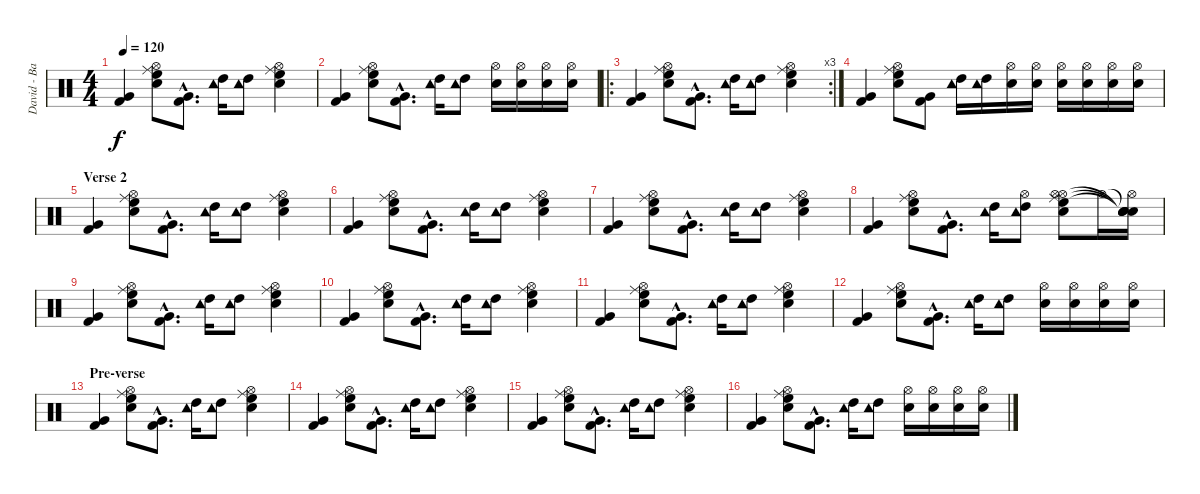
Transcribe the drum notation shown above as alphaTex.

\track ("David - Batterie" "David - Ba") {instrument percussion}
\staff {score}
\articulation defaults
\ts (4 4)
\tempo 120
\clef neutral
\ks c
("Kick (hit) 2" "Very Low Tom (hit)").4{dy f} ("Snare (hit) 2" "Hi-Hat (open)" "High Floor Tom (hit)" "Ride (middle)").8 ("Kick (hit) 2"{hac} "Very Low Tom (hit)"{hac}).8{d} ("High Tom (hit)" "Tambourine (hit)").16 ("High Tom (hit)" "Tambourine (hit)").8 ("Snare (hit) 2" "Hi-Hat (open)" "High Floor Tom (hit)" "Ride (middle)").4 |
("Kick (hit) 2" "Very Low Tom (hit)").4 ("Snare (hit) 2" "Hi-Hat (open)" "High Floor Tom (hit)" "Ride (middle)").8 ("Kick (hit) 2"{hac} "Very Low Tom (hit)"{hac}).8{d} ("High Tom (hit)" "Tambourine (hit)").16 ("High Tom (hit)" "Tambourine (hit)").8 ("Snare (hit) 2" "Hi-Hat (open)").16 ("Snare (hit) 2" "Hi-Hat (open)").16 ("Snare (hit) 2" "Hi-Hat (open)").16 ("Snare (hit) 2" "Hi-Hat (open)").16 |
\ro
\rc 3
("Kick (hit) 2" "Very Low Tom (hit)").4 ("Snare (hit) 2" "Hi-Hat (open)" "High Floor Tom (hit)" "Ride (middle)").8 ("Kick (hit) 2"{hac} "Very Low Tom (hit)"{hac}).8{d} ("High Tom (hit)" "Tambourine (hit)").16 ("High Tom (hit)" "Tambourine (hit)").8 ("Snare (hit) 2" "Hi-Hat (open)" "High Floor Tom (hit)" "Ride (middle)").4 |
("Kick (hit) 2" "Very Low Tom (hit)").4 ("Snare (hit) 2" "Hi-Hat (open)" "High Floor Tom (hit)" "Ride (middle)").8 ("Kick (hit) 2" "Very Low Tom (hit)").8 ("High Tom (hit)" "Tambourine (hit)").16 ("High Tom (hit)" "Tambourine (hit)").16 ("Snare (hit) 2" "Hi-Hat (open)").16 ("Snare (hit) 2" "Hi-Hat (open)").16 ("Snare (hit) 2" "Hi-Hat (open)").16 ("Snare (hit) 2" "Hi-Hat (open)").16 ("Snare (hit) 2" "Hi-Hat (open)").16 ("Snare (hit) 2" "Hi-Hat (open)").16 |
\section ("" "Verse 2")
("Kick (hit) 2" "Very Low Tom (hit)").4 ("Snare (hit) 2" "Hi-Hat (open)" "High Floor Tom (hit)" "Ride (middle)").8 ("Kick (hit) 2"{hac} "Very Low Tom (hit)"{hac}).8{d} ("High Tom (hit)" "Tambourine (hit)").16 ("High Tom (hit)" "Tambourine (hit)").8 ("Snare (hit) 2" "Hi-Hat (open)" "High Floor Tom (hit)" "Ride (middle)").4 |
("Kick (hit) 2" "Very Low Tom (hit)").4 ("Snare (hit) 2" "Hi-Hat (open)" "High Floor Tom (hit)" "Ride (middle)").8 ("Kick (hit) 2"{hac} "Very Low Tom (hit)"{hac}).8{d} ("High Tom (hit)" "Tambourine (hit)").16 ("High Tom (hit)" "Tambourine (hit)").8 ("Snare (hit) 2" "Hi-Hat (open)" "High Floor Tom (hit)" "Ride (middle)").4 |
("Kick (hit) 2" "Very Low Tom (hit)").4 ("Snare (hit) 2" "Hi-Hat (open)" "High Floor Tom (hit)" "Ride (middle)").8 ("Kick (hit) 2"{hac} "Very Low Tom (hit)"{hac}).8{d} ("High Tom (hit)" "Tambourine (hit)").16 ("High Tom (hit)" "Tambourine (hit)").8 ("Snare (hit) 2" "Hi-Hat (open)" "High Floor Tom (hit)" "Ride (middle)").4 |
("Kick (hit) 2" "Very Low Tom (hit)").4 ("Snare (hit) 2" "Hi-Hat (open)" "High Floor Tom (hit)" "Ride (middle)").8 ("Kick (hit) 2"{hac} "Very Low Tom (hit)"{hac}).8{d} ("High Tom (hit)" "Tambourine (hit)").16 ("High Tom (hit)" "Tambourine (hit)" "Hi-Hat (open)").8 ("Snare (hit) 2" "Hi-Hat (open)" "High Floor Tom (hit)" "Ride (middle)" "Hi-Hat (open)").8 "Hi-Hat (open)".16 ("Snare (hit)"{t} "Snare (hit)"{t} "Snare (hit)"{t} "Snare (hit)"{t} "Hi-Hat (open)").16 |
("Kick (hit) 2" "Very Low Tom (hit)").4 ("Snare (hit) 2" "Hi-Hat (open)" "High Floor Tom (hit)" "Ride (middle)").8 ("Kick (hit) 2"{hac} "Very Low Tom (hit)"{hac}).8{d} ("High Tom (hit)" "Tambourine (hit)").16 ("High Tom (hit)" "Tambourine (hit)").8 ("Snare (hit) 2" "Hi-Hat (open)" "High Floor Tom (hit)" "Ride (middle)").4 |
("Kick (hit) 2" "Very Low Tom (hit)").4 ("Snare (hit) 2" "Hi-Hat (open)" "High Floor Tom (hit)" "Ride (middle)").8 ("Kick (hit) 2"{hac} "Very Low Tom (hit)"{hac}).8{d} ("High Tom (hit)" "Tambourine (hit)").16 ("High Tom (hit)" "Tambourine (hit)").8 ("Snare (hit) 2" "Hi-Hat (open)" "High Floor Tom (hit)" "Ride (middle)").4 |
("Kick (hit) 2" "Very Low Tom (hit)").4 ("Snare (hit) 2" "Hi-Hat (open)" "High Floor Tom (hit)" "Ride (middle)").8 ("Kick (hit) 2"{hac} "Very Low Tom (hit)"{hac}).8{d} ("High Tom (hit)" "Tambourine (hit)").16 ("High Tom (hit)" "Tambourine (hit)").8 ("Snare (hit) 2" "Hi-Hat (open)" "High Floor Tom (hit)" "Ride (middle)").4 |
("Kick (hit) 2" "Very Low Tom (hit)").4 ("Snare (hit) 2" "Hi-Hat (open)" "High Floor Tom (hit)" "Ride (middle)").8 ("Kick (hit) 2"{hac} "Very Low Tom (hit)"{hac}).8{d} ("High Tom (hit)" "Tambourine (hit)").16 ("High Tom (hit)" "Tambourine (hit)").8 ("Snare (hit) 2" "Hi-Hat (open)").16 ("Snare (hit) 2" "Hi-Hat (open)").16 ("Snare (hit) 2" "Hi-Hat (open)").16 ("Snare (hit) 2" "Hi-Hat (open)").16 |
\section ("" "Pre-verse")
("Kick (hit) 2" "Very Low Tom (hit)").4 ("Snare (hit) 2" "Hi-Hat (open)" "High Floor Tom (hit)" "Ride (middle)").8 ("Kick (hit) 2"{hac} "Very Low Tom (hit)"{hac}).8{d} ("High Tom (hit)" "Tambourine (hit)").16 ("High Tom (hit)" "Tambourine (hit)").8 ("Snare (hit) 2" "Hi-Hat (open)" "High Floor Tom (hit)" "Ride (middle)").4 |
("Kick (hit) 2" "Very Low Tom (hit)").4 ("Snare (hit) 2" "Hi-Hat (open)" "High Floor Tom (hit)" "Ride (middle)").8 ("Kick (hit) 2"{hac} "Very Low Tom (hit)"{hac}).8{d} ("High Tom (hit)" "Tambourine (hit)").16 ("High Tom (hit)" "Tambourine (hit)").8 ("Snare (hit) 2" "Hi-Hat (open)" "High Floor Tom (hit)" "Ride (middle)").4 |
("Kick (hit) 2" "Very Low Tom (hit)").4 ("Snare (hit) 2" "Hi-Hat (open)" "High Floor Tom (hit)" "Ride (middle)").8 ("Kick (hit) 2"{hac} "Very Low Tom (hit)"{hac}).8{d} ("High Tom (hit)" "Tambourine (hit)").16 ("High Tom (hit)" "Tambourine (hit)").8 ("Snare (hit) 2" "Hi-Hat (open)" "High Floor Tom (hit)" "Ride (middle)").4 |
("Kick (hit) 2" "Very Low Tom (hit)").4 ("Snare (hit) 2" "Hi-Hat (open)" "High Floor Tom (hit)" "Ride (middle)").8 ("Kick (hit) 2"{hac} "Very Low Tom (hit)"{hac}).8{d} ("High Tom (hit)" "Tambourine (hit)").16 ("High Tom (hit)" "Tambourine (hit)").8 ("Snare (hit) 2" "Hi-Hat (open)").16 ("Snare (hit) 2" "Hi-Hat (open)").16 ("Snare (hit) 2" "Hi-Hat (open)").16 ("Snare (hit) 2" "Hi-Hat (open)").16
